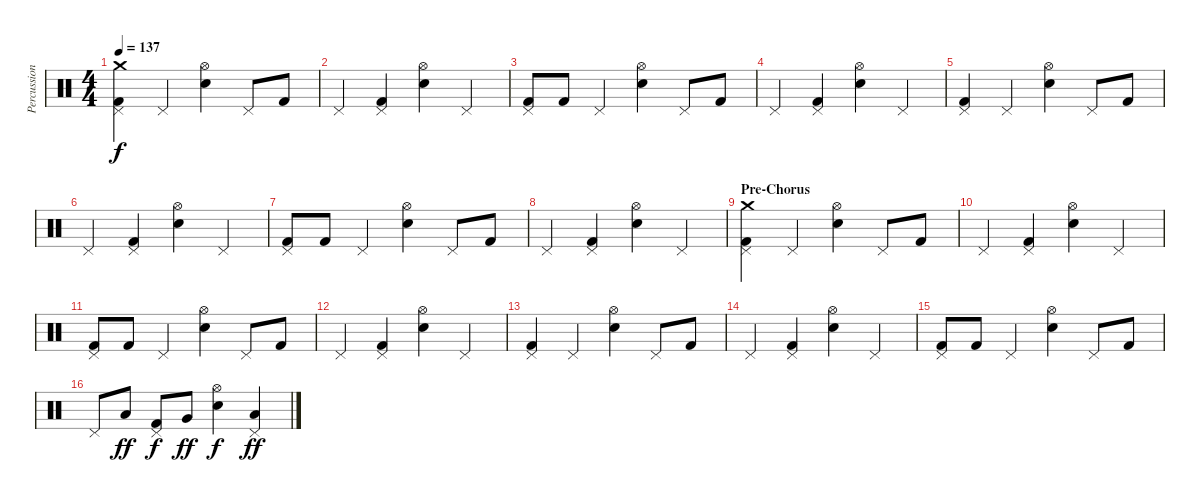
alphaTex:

\track ("Percussion" "Percussion") {instrument percussion}
\staff {score}
\articulation defaults
\ts (4 4)
\tempo 137
\clef neutral
\ks c
("Crash medium (hit)" "Pedal Hi-Hat (hit)" "Kick (hit) 2").4{dy f} "Pedal Hi-Hat (hit)".4 ("Hi-Hat (open)" "Snare (hit) 2").4 "Pedal Hi-Hat (hit)".8 "Kick (hit) 2".8 |
"Pedal Hi-Hat (hit)".4 ("Pedal Hi-Hat (hit)" "Kick (hit) 2").4 ("Hi-Hat (open)" "Snare (hit) 2").4 "Pedal Hi-Hat (hit)".4 |
("Pedal Hi-Hat (hit)" "Kick (hit) 2").8 "Kick (hit) 2".8 "Pedal Hi-Hat (hit)".4 ("Hi-Hat (open)" "Snare (hit) 2").4 "Pedal Hi-Hat (hit)".8 "Kick (hit) 2".8 |
"Pedal Hi-Hat (hit)".4 ("Pedal Hi-Hat (hit)" "Kick (hit) 2").4 ("Hi-Hat (open)" "Snare (hit) 2").4 "Pedal Hi-Hat (hit)".4 |
("Pedal Hi-Hat (hit)" "Kick (hit) 2").4 "Pedal Hi-Hat (hit)".4 ("Hi-Hat (open)" "Snare (hit) 2").4 "Pedal Hi-Hat (hit)".8 "Kick (hit) 2".8 |
"Pedal Hi-Hat (hit)".4 ("Pedal Hi-Hat (hit)" "Kick (hit) 2").4 ("Hi-Hat (open)" "Snare (hit) 2").4 "Pedal Hi-Hat (hit)".4 |
("Pedal Hi-Hat (hit)" "Kick (hit) 2").8 "Kick (hit) 2".8 "Pedal Hi-Hat (hit)".4 ("Hi-Hat (open)" "Snare (hit) 2").4 "Pedal Hi-Hat (hit)".8 "Kick (hit) 2".8 |
"Pedal Hi-Hat (hit)".4 ("Pedal Hi-Hat (hit)" "Kick (hit) 2").4 ("Hi-Hat (open)" "Snare (hit) 2").4 "Pedal Hi-Hat (hit)".4 |
\section ("" "Pre-Chorus")
("Crash medium (hit)" "Pedal Hi-Hat (hit)" "Kick (hit) 2").4 "Pedal Hi-Hat (hit)".4 ("Hi-Hat (open)" "Snare (hit) 2").4 "Pedal Hi-Hat (hit)".8 "Kick (hit) 2".8 |
"Pedal Hi-Hat (hit)".4 ("Pedal Hi-Hat (hit)" "Kick (hit) 2").4 ("Hi-Hat (open)" "Snare (hit) 2").4 "Pedal Hi-Hat (hit)".4 |
("Pedal Hi-Hat (hit)" "Kick (hit) 2").8 "Kick (hit) 2".8 "Pedal Hi-Hat (hit)".4 ("Hi-Hat (open)" "Snare (hit) 2").4 "Pedal Hi-Hat (hit)".8 "Kick (hit) 2".8 |
"Pedal Hi-Hat (hit)".4 ("Pedal Hi-Hat (hit)" "Kick (hit) 2").4 ("Hi-Hat (open)" "Snare (hit) 2").4 "Pedal Hi-Hat (hit)".4 |
("Pedal Hi-Hat (hit)" "Kick (hit) 2").4 "Pedal Hi-Hat (hit)".4 ("Hi-Hat (open)" "Snare (hit) 2").4 "Pedal Hi-Hat (hit)".8 "Kick (hit) 2".8 |
"Pedal Hi-Hat (hit)".4 ("Pedal Hi-Hat (hit)" "Kick (hit) 2").4 ("Hi-Hat (open)" "Snare (hit) 2").4 "Pedal Hi-Hat (hit)".4 |
("Pedal Hi-Hat (hit)" "Kick (hit) 2").8 "Kick (hit) 2".8 "Pedal Hi-Hat (hit)".4 ("Hi-Hat (open)" "Snare (hit) 2").4 "Pedal Hi-Hat (hit)".8 "Kick (hit) 2".8 |
"Pedal Hi-Hat (hit)".8 "Low Tom (hit)".8{dy ff} ("Pedal Hi-Hat (hit)" "Kick (hit) 2").8{dy f} "Very Low Tom (hit)".8{dy ff} ("Hi-Hat (open)" "Snare (hit) 2").4{dy f} ("Pedal Hi-Hat (hit)" "Low Floor Tom (hit)").4{dy ff}
